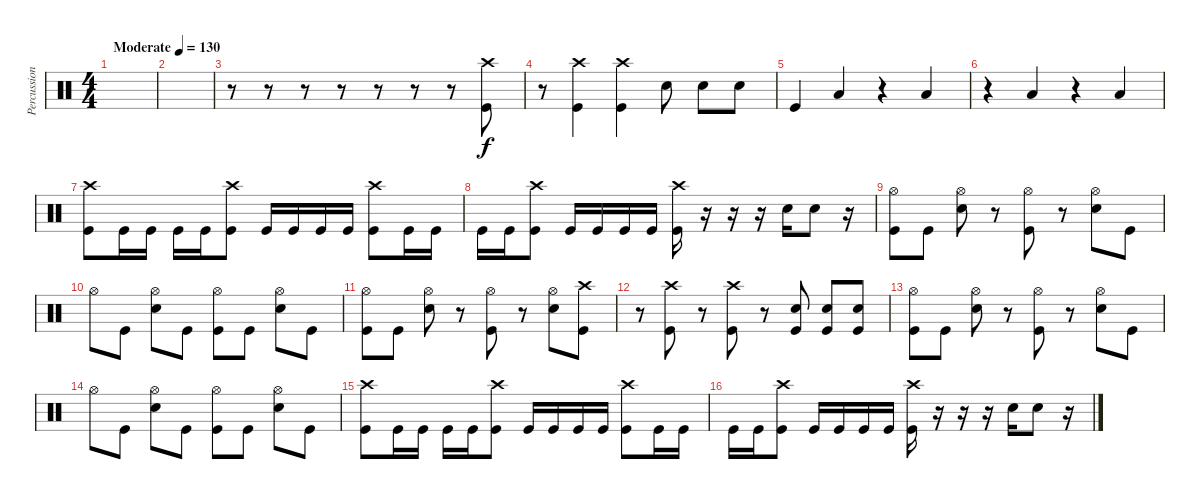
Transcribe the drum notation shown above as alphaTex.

\track ("Percussion" "Percussion") {instrument percussion}
\staff {score}
\articulation defaults
\ts (4 4)
\tempo (130 "Moderate")
\clef neutral
\ks c
|
|
r.8 r.8 r.8 r.8 r.8 r.8 r.8 ("Crash high (hit)" "Kick (hit)").8 |
r.8 ("Crash high (hit)" "Kick (hit)").4 ("Crash high (hit)" "Kick (hit)").4 "Electric Snare (hit)".8 "Electric Snare (hit)".8 "Electric Snare (hit)".8 |
"Kick (hit)".4 "Low Tom (hit)".4 r.4 "Low Tom (hit)".4 |
r.4 "Low Tom (hit)".4 r.4 "Low Tom (hit)".4 |
("Crash high (hit)" "Kick (hit)").8 "Kick (hit)".16 "Kick (hit)".16 "Kick (hit)".16 "Kick (hit)".16 ("Crash high (hit)" "Kick (hit)").8 "Kick (hit)".16 "Kick (hit)".16 "Kick (hit)".16 "Kick (hit)".16 ("Crash high (hit)" "Kick (hit)").8 "Kick (hit)".16 "Kick (hit)".16 |
"Kick (hit)".16 "Kick (hit)".16 ("Crash high (hit)" "Kick (hit)").8 "Kick (hit)".16 "Kick (hit)".16 "Kick (hit)".16 "Kick (hit)".16 ("Crash high (hit)" "Kick (hit)").16 r.16 r.16 r.16 "Electric Snare (hit)".16 "Electric Snare (hit)".8 r.16 |
("Hi-Hat (open)" "Kick (hit)").8 "Kick (hit)".8 ("Hi-Hat (open)" "Electric Snare (hit)").8 r.8 ("Hi-Hat (open)" "Kick (hit)").8 r.8 ("Hi-Hat (open)" "Electric Snare (hit)").8 "Kick (hit)".8 |
"Hi-Hat (open)".8 "Kick (hit)".8 ("Hi-Hat (open)" "Electric Snare (hit)").8 "Kick (hit)".8 ("Hi-Hat (open)" "Kick (hit)").8 "Kick (hit)".8 ("Hi-Hat (open)" "Electric Snare (hit)").8 "Kick (hit)".8 |
("Hi-Hat (open)" "Kick (hit)").8 "Kick (hit)".8 ("Hi-Hat (open)" "Electric Snare (hit)").8 r.8 ("Hi-Hat (open)" "Kick (hit)").8 r.8 ("Hi-Hat (open)" "Electric Snare (hit)").8 ("Crash high (hit)" "Kick (hit)").8 |
r.8 ("Crash high (hit)" "Kick (hit)").8 r.8 ("Crash high (hit)" "Kick (hit)").8 r.8 ("Electric Snare (hit)" "Kick (hit)").8 ("Electric Snare (hit)" "Kick (hit)").8 ("Electric Snare (hit)" "Kick (hit)").8 |
("Hi-Hat (open)" "Kick (hit)").8 "Kick (hit)".8 ("Hi-Hat (open)" "Electric Snare (hit)").8 r.8 ("Hi-Hat (open)" "Kick (hit)").8 r.8 ("Hi-Hat (open)" "Electric Snare (hit)").8 "Kick (hit)".8 |
"Hi-Hat (open)".8 "Kick (hit)".8 ("Hi-Hat (open)" "Electric Snare (hit)").8 "Kick (hit)".8 ("Hi-Hat (open)" "Kick (hit)").8 "Kick (hit)".8 ("Hi-Hat (open)" "Electric Snare (hit)").8 "Kick (hit)".8 |
("Crash high (hit)" "Kick (hit)").8 "Kick (hit)".16 "Kick (hit)".16 "Kick (hit)".16 "Kick (hit)".16 ("Crash high (hit)" "Kick (hit)").8 "Kick (hit)".16 "Kick (hit)".16 "Kick (hit)".16 "Kick (hit)".16 ("Crash high (hit)" "Kick (hit)").8 "Kick (hit)".16 "Kick (hit)".16 |
"Kick (hit)".16 "Kick (hit)".16 ("Crash high (hit)" "Kick (hit)").8 "Kick (hit)".16 "Kick (hit)".16 "Kick (hit)".16 "Kick (hit)".16 ("Crash high (hit)" "Kick (hit)").16 r.16 r.16 r.16 "Electric Snare (hit)".16 "Electric Snare (hit)".8 r.16
